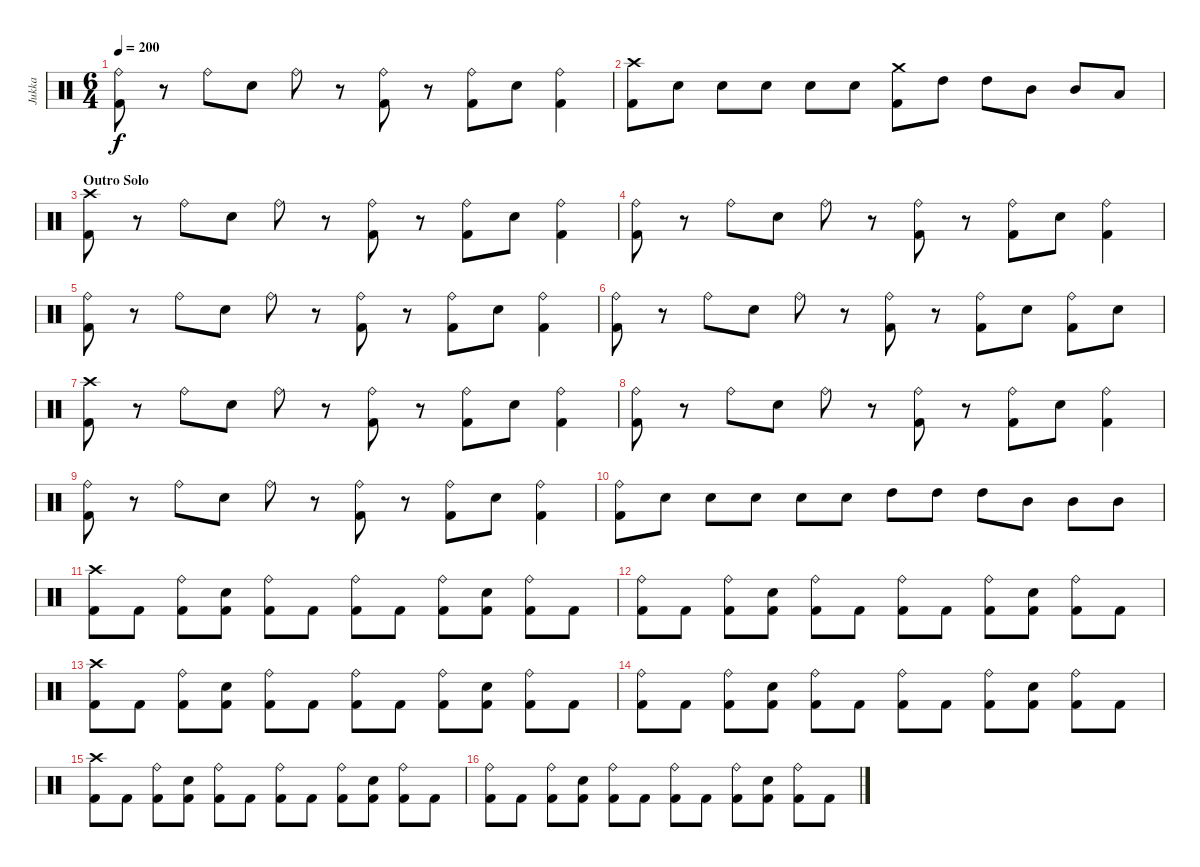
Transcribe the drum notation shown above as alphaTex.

\track ("Jukka" "Jukka") {instrument percussion}
\staff {score}
\articulation defaults
\ts (6 4)
\tempo 200
\clef neutral
\ks c
("Ride (bell)" "Kick (hit) 2").8{dy f} r.8 "Ride (bell)".8 "Snare (hit) 2".8 "Ride (bell)".8 r.8 ("Ride (bell)" "Kick (hit) 2").8 r.8 ("Ride (bell)" "Kick (hit) 2").8 "Snare (hit) 2".8 ("Ride (bell)" "Kick (hit) 2").4 |
("Crash high (hit)" "Kick (hit) 2").8 "Snare (hit) 2".8 "Snare (hit) 2".8 "Snare (hit) 2".8 "Snare (hit) 2".8 "Snare (hit) 2".8 ("Crash medium (hit)" "Kick (hit) 2").8 "High Tom (hit)".8 "High Tom (hit)".8 "Mid Tom (hit)".8 "Mid Tom (hit)".8 "Low Tom (hit)".8 |
\section ("" "Outro Solo")
("Crash high (hit)" "Kick (hit) 2").8 r.8 "Ride (bell)".8 "Snare (hit) 2".8 "Ride (bell)".8 r.8 ("Ride (bell)" "Kick (hit) 2").8 r.8 ("Ride (bell)" "Kick (hit) 2").8 "Snare (hit) 2".8 ("Ride (bell)" "Kick (hit) 2").4 |
("Ride (bell)" "Kick (hit) 2").8 r.8 "Ride (bell)".8 "Snare (hit) 2".8 "Ride (bell)".8 r.8 ("Ride (bell)" "Kick (hit) 2").8 r.8 ("Ride (bell)" "Kick (hit) 2").8 "Snare (hit) 2".8 ("Ride (bell)" "Kick (hit) 2").4 |
("Ride (bell)" "Kick (hit) 2").8 r.8 "Ride (bell)".8 "Snare (hit) 2".8 "Ride (bell)".8 r.8 ("Ride (bell)" "Kick (hit) 2").8 r.8 ("Ride (bell)" "Kick (hit) 2").8 "Snare (hit) 2".8 ("Ride (bell)" "Kick (hit) 2").4 |
("Ride (bell)" "Kick (hit) 2").8 r.8 "Ride (bell)".8 "Snare (hit) 2".8 "Ride (bell)".8 r.8 ("Ride (bell)" "Kick (hit) 2").8 r.8 ("Ride (bell)" "Kick (hit) 2").8 "Snare (hit) 2".8 ("Ride (bell)" "Kick (hit) 2").8 "Snare (hit) 2".8 |
("Crash high (hit)" "Kick (hit) 2").8 r.8 "Ride (bell)".8 "Snare (hit) 2".8 "Ride (bell)".8 r.8 ("Ride (bell)" "Kick (hit) 2").8 r.8 ("Ride (bell)" "Kick (hit) 2").8 "Snare (hit) 2".8 ("Ride (bell)" "Kick (hit) 2").4 |
("Ride (bell)" "Kick (hit) 2").8 r.8 "Ride (bell)".8 "Snare (hit) 2".8 "Ride (bell)".8 r.8 ("Ride (bell)" "Kick (hit) 2").8 r.8 ("Ride (bell)" "Kick (hit) 2").8 "Snare (hit) 2".8 ("Ride (bell)" "Kick (hit) 2").4 |
("Ride (bell)" "Kick (hit) 2").8 r.8 "Ride (bell)".8 "Snare (hit) 2".8 "Ride (bell)".8 r.8 ("Ride (bell)" "Kick (hit) 2").8 r.8 ("Ride (bell)" "Kick (hit) 2").8 "Snare (hit) 2".8 ("Ride (bell)" "Kick (hit) 2").4 |
("Ride (bell)" "Kick (hit) 2").8 "Snare (hit) 2".8 "Snare (hit) 2".8 "Snare (hit) 2".8 "Snare (hit) 2".8 "Snare (hit) 2".8 "High Tom (hit)".8 "High Tom (hit)".8 "High Tom (hit)".8 "Mid Tom (hit)".8 "Mid Tom (hit)".8 "Mid Tom (hit)".8 |
("Crash high (hit)" "Kick (hit) 2").8 "Kick (hit) 2".8 ("Ride (bell)" "Kick (hit) 2").8 ("Snare (hit) 2" "Kick (hit) 2").8 ("Ride (bell)" "Kick (hit) 2").8 "Kick (hit) 2".8 ("Ride (bell)" "Kick (hit) 2").8 "Kick (hit) 2".8 ("Ride (bell)" "Kick (hit) 2").8 ("Snare (hit) 2" "Kick (hit) 2").8 ("Ride (bell)" "Kick (hit) 2").8 "Kick (hit) 2".8 |
("Ride (bell)" "Kick (hit) 2").8 "Kick (hit) 2".8 ("Ride (bell)" "Kick (hit) 2").8 ("Snare (hit) 2" "Kick (hit) 2").8 ("Ride (bell)" "Kick (hit) 2").8 "Kick (hit) 2".8 ("Ride (bell)" "Kick (hit) 2").8 "Kick (hit) 2".8 ("Ride (bell)" "Kick (hit) 2").8 ("Snare (hit) 2" "Kick (hit) 2").8 ("Ride (bell)" "Kick (hit) 2").8 "Kick (hit) 2".8 |
("Crash high (hit)" "Kick (hit) 2").8 "Kick (hit) 2".8 ("Ride (bell)" "Kick (hit) 2").8 ("Snare (hit) 2" "Kick (hit) 2").8 ("Ride (bell)" "Kick (hit) 2").8 "Kick (hit) 2".8 ("Ride (bell)" "Kick (hit) 2").8 "Kick (hit) 2".8 ("Ride (bell)" "Kick (hit) 2").8 ("Snare (hit) 2" "Kick (hit) 2").8 ("Ride (bell)" "Kick (hit) 2").8 "Kick (hit) 2".8 |
("Ride (bell)" "Kick (hit) 2").8 "Kick (hit) 2".8 ("Ride (bell)" "Kick (hit) 2").8 ("Snare (hit) 2" "Kick (hit) 2").8 ("Ride (bell)" "Kick (hit) 2").8 "Kick (hit) 2".8 ("Ride (bell)" "Kick (hit) 2").8 "Kick (hit) 2".8 ("Ride (bell)" "Kick (hit) 2").8 ("Snare (hit) 2" "Kick (hit) 2").8 ("Ride (bell)" "Kick (hit) 2").8 "Kick (hit) 2".8 |
("Crash high (hit)" "Kick (hit) 2").8 "Kick (hit) 2".8 ("Ride (bell)" "Kick (hit) 2").8 ("Snare (hit) 2" "Kick (hit) 2").8 ("Ride (bell)" "Kick (hit) 2").8 "Kick (hit) 2".8 ("Ride (bell)" "Kick (hit) 2").8 "Kick (hit) 2".8 ("Ride (bell)" "Kick (hit) 2").8 ("Snare (hit) 2" "Kick (hit) 2").8 ("Ride (bell)" "Kick (hit) 2").8 "Kick (hit) 2".8 |
("Ride (bell)" "Kick (hit) 2").8 "Kick (hit) 2".8 ("Ride (bell)" "Kick (hit) 2").8 ("Snare (hit) 2" "Kick (hit) 2").8 ("Ride (bell)" "Kick (hit) 2").8 "Kick (hit) 2".8 ("Ride (bell)" "Kick (hit) 2").8 "Kick (hit) 2".8 ("Ride (bell)" "Kick (hit) 2").8 ("Snare (hit) 2" "Kick (hit) 2").8 ("Ride (bell)" "Kick (hit) 2").8 "Kick (hit) 2".8
